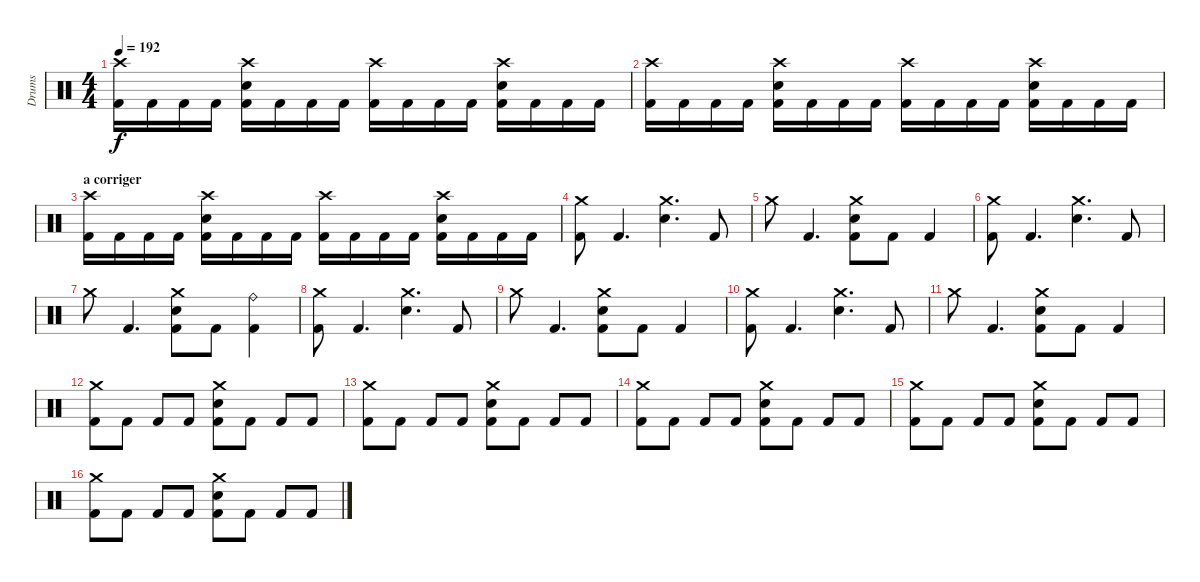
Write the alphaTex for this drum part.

\track ("Drums" "Drums") {instrument percussion}
\staff {score}
\articulation defaults
\ts (4 4)
\tempo 192
\clef neutral
\ks c
("Crash high (hit)" "Kick (hit) 2").16{dy f} "Kick (hit) 2".16 "Kick (hit) 2".16 "Kick (hit) 2".16 ("Crash high (hit)" "Snare (hit) 2" "Kick (hit) 2").16 "Kick (hit) 2".16 "Kick (hit) 2".16 "Kick (hit) 2".16 ("Crash high (hit)" "Kick (hit) 2").16 "Kick (hit) 2".16 "Kick (hit) 2".16 "Kick (hit) 2".16 ("Crash high (hit)" "Snare (hit) 2" "Kick (hit) 2").16 "Kick (hit) 2".16 "Kick (hit) 2".16 "Kick (hit) 2".16 |
("Crash high (hit)" "Kick (hit) 2").16 "Kick (hit) 2".16 "Kick (hit) 2".16 "Kick (hit) 2".16 ("Crash high (hit)" "Snare (hit) 2" "Kick (hit) 2").16 "Kick (hit) 2".16 "Kick (hit) 2".16 "Kick (hit) 2".16 ("Crash high (hit)" "Kick (hit) 2").16 "Kick (hit) 2".16 "Kick (hit) 2".16 "Kick (hit) 2".16 ("Crash high (hit)" "Snare (hit) 2" "Kick (hit) 2").16 "Kick (hit) 2".16 "Kick (hit) 2".16 "Kick (hit) 2".16 |
\section ("" "a corriger")
("Crash high (hit)" "Kick (hit) 2").16 "Kick (hit) 2".16 "Kick (hit) 2".16 "Kick (hit) 2".16 ("Crash high (hit)" "Snare (hit) 2" "Kick (hit) 2").16 "Kick (hit) 2".16 "Kick (hit) 2".16 "Kick (hit) 2".16 ("Crash high (hit)" "Kick (hit) 2").16 "Kick (hit) 2".16 "Kick (hit) 2".16 "Kick (hit) 2".16 ("Crash high (hit)" "Snare (hit) 2" "Kick (hit) 2").16 "Kick (hit) 2".16 "Kick (hit) 2".16 "Kick (hit) 2".16 |
\section ("" "")
("Crash medium (hit)" "Kick (hit) 2").8 "Kick (hit) 2".4{d} ("Crash medium (hit)" "Snare (hit) 2").4{d} "Kick (hit) 2".8 |
"Crash medium (hit)".8 "Kick (hit) 2".4{d} ("Crash medium (hit)" "Snare (hit) 2" "Kick (hit) 2").8 "Kick (hit) 2".8 "Kick (hit) 2".4 |
("Crash medium (hit)" "Kick (hit) 2").8 "Kick (hit) 2".4{d} ("Crash medium (hit)" "Snare (hit) 2").4{d} "Kick (hit) 2".8 |
"Crash medium (hit)".8 "Kick (hit) 2".4{d} ("Crash medium (hit)" "Snare (hit) 2" "Kick (hit) 2").8 "Kick (hit) 2".8 ("Ride (bell)" "Kick (hit) 2").4 |
("Crash medium (hit)" "Kick (hit) 2").8 "Kick (hit) 2".4{d} ("Crash medium (hit)" "Snare (hit) 2").4{d} "Kick (hit) 2".8 |
"Crash medium (hit)".8 "Kick (hit) 2".4{d} ("Crash medium (hit)" "Snare (hit) 2" "Kick (hit) 2").8 "Kick (hit) 2".8 "Kick (hit) 2".4 |
("Crash medium (hit)" "Kick (hit) 2").8 "Kick (hit) 2".4{d} ("Crash medium (hit)" "Snare (hit) 2").4{d} "Kick (hit) 2".8 |
"Crash medium (hit)".8 "Kick (hit) 2".4{d} ("Crash medium (hit)" "Snare (hit) 2" "Kick (hit) 2").8 "Kick (hit) 2".8 "Kick (hit) 2".4 |
("Crash medium (hit)" "Kick (hit) 2").8 "Kick (hit) 2".8 "Kick (hit) 2".8 "Kick (hit) 2".8 ("Crash medium (hit)" "Snare (hit) 2" "Kick (hit) 2").8 "Kick (hit) 2".8 "Kick (hit) 2".8 "Kick (hit) 2".8 |
("Crash medium (hit)" "Kick (hit) 2").8 "Kick (hit) 2".8 "Kick (hit) 2".8 "Kick (hit) 2".8 ("Crash medium (hit)" "Snare (hit) 2" "Kick (hit) 2").8 "Kick (hit) 2".8 "Kick (hit) 2".8 "Kick (hit) 2".8 |
("Crash medium (hit)" "Kick (hit) 2").8 "Kick (hit) 2".8 "Kick (hit) 2".8 "Kick (hit) 2".8 ("Crash medium (hit)" "Snare (hit) 2" "Kick (hit) 2").8 "Kick (hit) 2".8 "Kick (hit) 2".8 "Kick (hit) 2".8 |
("Crash medium (hit)" "Kick (hit) 2").8 "Kick (hit) 2".8 "Kick (hit) 2".8 "Kick (hit) 2".8 ("Crash medium (hit)" "Snare (hit) 2" "Kick (hit) 2").8 "Kick (hit) 2".8 "Kick (hit) 2".8 "Kick (hit) 2".8 |
("Crash medium (hit)" "Kick (hit) 2").8 "Kick (hit) 2".8 "Kick (hit) 2".8 "Kick (hit) 2".8 ("Crash medium (hit)" "Snare (hit) 2" "Kick (hit) 2").8 "Kick (hit) 2".8 "Kick (hit) 2".8 "Kick (hit) 2".8
